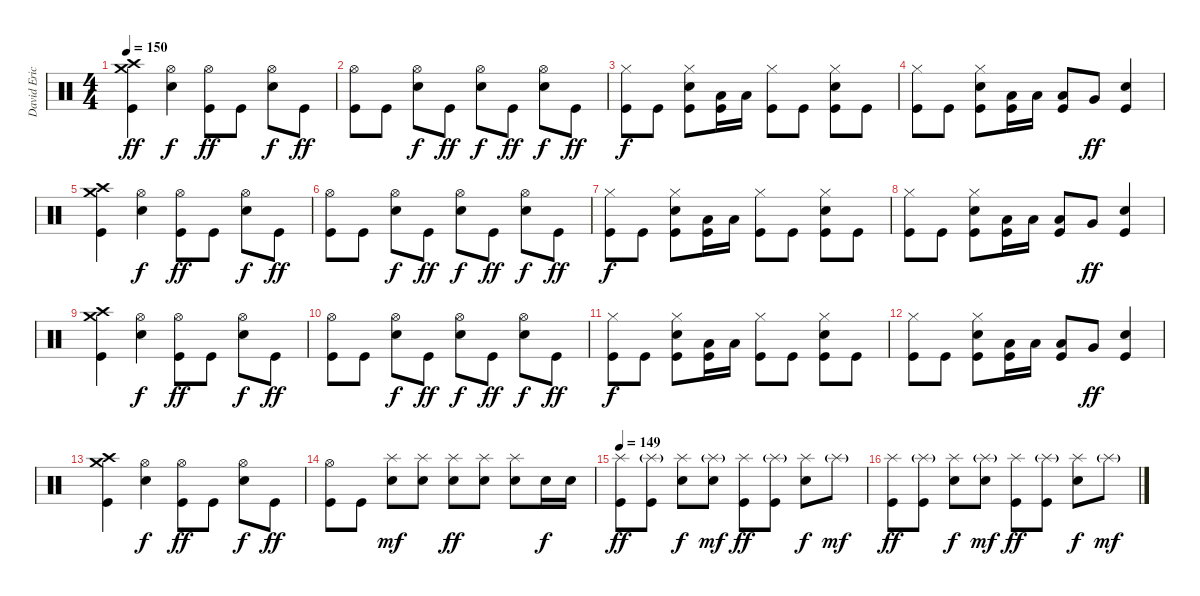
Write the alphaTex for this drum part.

\track ("David Eric Grohl" "David Eric") {instrument percussion}
\staff {score}
\articulation defaults
\ts (4 4)
\tempo 150
\clef neutral
\ks c
("Crash medium (hit)" "Crash high (hit)" "Kick (hit)").4{dy ff} ("Hi-Hat (open)" "Snare (hit) 2").4{dy f} ("Hi-Hat (open)" "Kick (hit)").8{dy ff} "Kick (hit)".8 ("Hi-Hat (open)" "Snare (hit) 2").8{dy f} "Kick (hit)".8{dy ff} |
("Hi-Hat (open)" "Kick (hit)").8 "Kick (hit)".8 ("Hi-Hat (open)" "Snare (hit) 2").8{dy f} "Kick (hit)".8{dy ff} ("Hi-Hat (open)" "Snare (hit) 2").8{dy f} "Kick (hit)".8{dy ff} ("Hi-Hat (open)" "Snare (hit) 2").8{dy f} "Kick (hit)".8{dy ff} |
("Hi-Hat (closed)" "Kick (hit)").8{dy f} "Kick (hit)".8 ("Snare (hit) 2" "Hi-Hat (closed)" "Kick (hit)").8 ("Low Tom (hit)" "Kick (hit)").16 "Low Tom (hit)".16 ("Hi-Hat (closed)" "Kick (hit)").8 "Kick (hit)".8 ("Snare (hit) 2" "Hi-Hat (closed)" "Kick (hit)").8 "Kick (hit)".8 |
("Hi-Hat (closed)" "Kick (hit)").8 "Kick (hit)".8 ("Snare (hit) 2" "Hi-Hat (closed)" "Kick (hit)").8 ("Low Tom (hit)" "Kick (hit)").16 "Low Tom (hit)".16 ("Low Tom (hit)" "Kick (hit)").8 "Very Low Tom (hit)".8{dy ff} ("Snare (hit) 2" "Kick (hit)").4 |
("Crash medium (hit)" "Crash high (hit)" "Kick (hit)").4 ("Hi-Hat (open)" "Snare (hit) 2").4{dy f} ("Hi-Hat (open)" "Kick (hit)").8{dy ff} "Kick (hit)".8 ("Hi-Hat (open)" "Snare (hit) 2").8{dy f} "Kick (hit)".8{dy ff} |
("Hi-Hat (open)" "Kick (hit)").8 "Kick (hit)".8 ("Hi-Hat (open)" "Snare (hit) 2").8{dy f} "Kick (hit)".8{dy ff} ("Hi-Hat (open)" "Snare (hit) 2").8{dy f} "Kick (hit)".8{dy ff} ("Hi-Hat (open)" "Snare (hit) 2").8{dy f} "Kick (hit)".8{dy ff} |
("Hi-Hat (closed)" "Kick (hit)").8{dy f} "Kick (hit)".8 ("Snare (hit) 2" "Hi-Hat (closed)" "Kick (hit)").8 ("Low Tom (hit)" "Kick (hit)").16 "Low Tom (hit)".16 ("Hi-Hat (closed)" "Kick (hit)").8 "Kick (hit)".8 ("Snare (hit) 2" "Hi-Hat (closed)" "Kick (hit)").8 "Kick (hit)".8 |
("Hi-Hat (closed)" "Kick (hit)").8 "Kick (hit)".8 ("Snare (hit) 2" "Hi-Hat (closed)" "Kick (hit)").8 ("Low Tom (hit)" "Kick (hit)").16 "Low Tom (hit)".16 ("Low Tom (hit)" "Kick (hit)").8 "Very Low Tom (hit)".8{dy ff} ("Snare (hit) 2" "Kick (hit)").4 |
("Crash medium (hit)" "Crash high (hit)" "Kick (hit)").4 ("Hi-Hat (open)" "Snare (hit) 2").4{dy f} ("Hi-Hat (open)" "Kick (hit)").8{dy ff} "Kick (hit)".8 ("Hi-Hat (open)" "Snare (hit) 2").8{dy f} "Kick (hit)".8{dy ff} |
("Hi-Hat (open)" "Kick (hit)").8 "Kick (hit)".8 ("Hi-Hat (open)" "Snare (hit) 2").8{dy f} "Kick (hit)".8{dy ff} ("Hi-Hat (open)" "Snare (hit) 2").8{dy f} "Kick (hit)".8{dy ff} ("Hi-Hat (open)" "Snare (hit) 2").8{dy f} "Kick (hit)".8{dy ff} |
("Hi-Hat (closed)" "Kick (hit)").8{dy f} "Kick (hit)".8 ("Snare (hit) 2" "Hi-Hat (closed)" "Kick (hit)").8 ("Low Tom (hit)" "Kick (hit)").16 "Low Tom (hit)".16 ("Hi-Hat (closed)" "Kick (hit)").8 "Kick (hit)".8 ("Snare (hit) 2" "Hi-Hat (closed)" "Kick (hit)").8 "Kick (hit)".8 |
("Hi-Hat (closed)" "Kick (hit)").8 "Kick (hit)".8 ("Snare (hit) 2" "Hi-Hat (closed)" "Kick (hit)").8 ("Low Tom (hit)" "Kick (hit)").16 "Low Tom (hit)".16 ("Low Tom (hit)" "Kick (hit)").8 "Very Low Tom (hit)".8{dy ff} ("Snare (hit) 2" "Kick (hit)").4 |
("Crash medium (hit)" "Crash high (hit)" "Kick (hit)").4 ("Hi-Hat (open)" "Snare (hit) 2").4{dy f} ("Hi-Hat (open)" "Kick (hit)").8{dy ff} "Kick (hit)".8 ("Hi-Hat (open)" "Snare (hit) 2").8{dy f} "Kick (hit)".8{dy ff} |
("Hi-Hat (open)" "Kick (hit)").8 "Kick (hit)".8 ("Splash (hit)" "Snare (hit) 2").8{dy mf} ("Splash (hit)" "Snare (hit) 2").8 ("Splash (hit)" "Snare (hit) 2").8{dy ff} ("Splash (hit)" "Snare (hit) 2").8 ("Splash (hit)" "Snare (hit) 2").8 "Snare (hit) 2".16{dy f} "Snare (hit) 2".16 |
\tempo 149
("Splash (hit)" "Kick (hit)").8{dy ff} ("Splash (hit)"{g} "Kick (hit)").8 ("Splash (hit)" "Snare (hit) 2").8{dy f} ("Splash (hit)"{g} "Snare (hit) 2").8{dy mf} ("Splash (hit)" "Kick (hit)").8{dy ff} ("Splash (hit)"{g} "Kick (hit)").8 ("Splash (hit)" "Snare (hit) 2").8{dy f} "Splash (hit)"{g}.8{dy mf} |
("Splash (hit)" "Kick (hit)").8{dy ff} ("Splash (hit)"{g} "Kick (hit)").8 ("Splash (hit)" "Snare (hit) 2").8{dy f} ("Splash (hit)"{g} "Snare (hit) 2").8{dy mf} ("Splash (hit)" "Kick (hit)").8{dy ff} ("Splash (hit)"{g} "Kick (hit)").8 ("Splash (hit)" "Snare (hit) 2").8{dy f} "Splash (hit)"{g}.8{dy mf}
